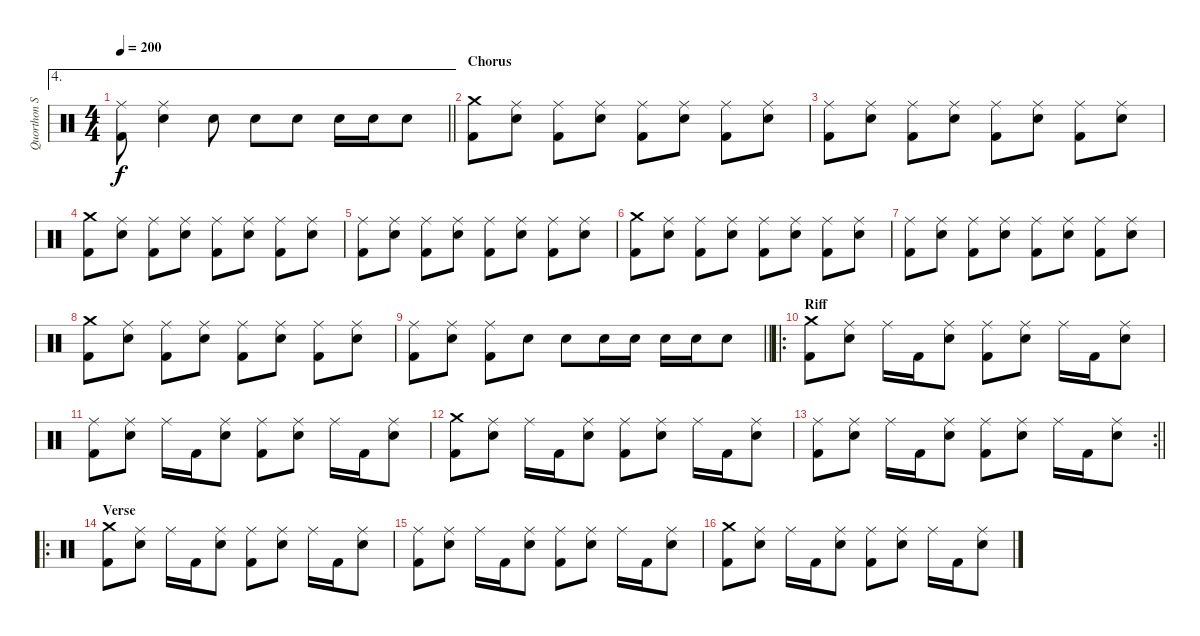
\track ("Quorthon Seth" "Quorthon S") {instrument percussion}
\staff {score}
\articulation defaults
\ae 4
\ts (4 4)
\tempo 200
\clef neutral
\barLineRight lightlight
\ks c
("Ride (middle)" "Kick (hit) 2").8{dy f} ("Ride (middle)" "Snare (hit) 2").4 "Snare (hit) 2".8 "Snare (hit) 2".8 "Snare (hit) 2".8 "Snare (hit) 2".16 "Snare (hit) 2".16 "Snare (hit) 2".8 |
\section ("" "Chorus")
("Crash medium (hit)" "Kick (hit) 2").8 ("Ride (middle)" "Snare (hit) 2").8 ("Ride (middle)" "Kick (hit) 2").8 ("Ride (middle)" "Snare (hit) 2").8 ("Ride (middle)" "Kick (hit) 2").8 ("Ride (middle)" "Snare (hit) 2").8 ("Ride (middle)" "Kick (hit) 2").8 ("Ride (middle)" "Snare (hit) 2").8 |
("Ride (middle)" "Kick (hit) 2").8 ("Ride (middle)" "Snare (hit) 2").8 ("Ride (middle)" "Kick (hit) 2").8 ("Ride (middle)" "Snare (hit) 2").8 ("Ride (middle)" "Kick (hit) 2").8 ("Ride (middle)" "Snare (hit) 2").8 ("Ride (middle)" "Kick (hit) 2").8 ("Ride (middle)" "Snare (hit) 2").8 |
("Crash medium (hit)" "Kick (hit) 2").8 ("Ride (middle)" "Snare (hit) 2").8 ("Ride (middle)" "Kick (hit) 2").8 ("Ride (middle)" "Snare (hit) 2").8 ("Ride (middle)" "Kick (hit) 2").8 ("Ride (middle)" "Snare (hit) 2").8 ("Ride (middle)" "Kick (hit) 2").8 ("Ride (middle)" "Snare (hit) 2").8 |
("Ride (middle)" "Kick (hit) 2").8 ("Ride (middle)" "Snare (hit) 2").8 ("Ride (middle)" "Kick (hit) 2").8 ("Ride (middle)" "Snare (hit) 2").8 ("Ride (middle)" "Kick (hit) 2").8 ("Ride (middle)" "Snare (hit) 2").8 ("Ride (middle)" "Kick (hit) 2").8 ("Ride (middle)" "Snare (hit) 2").8 |
("Crash medium (hit)" "Kick (hit) 2").8 ("Ride (middle)" "Snare (hit) 2").8 ("Ride (middle)" "Kick (hit) 2").8 ("Ride (middle)" "Snare (hit) 2").8 ("Ride (middle)" "Kick (hit) 2").8 ("Ride (middle)" "Snare (hit) 2").8 ("Ride (middle)" "Kick (hit) 2").8 ("Ride (middle)" "Snare (hit) 2").8 |
("Ride (middle)" "Kick (hit) 2").8 ("Ride (middle)" "Snare (hit) 2").8 ("Ride (middle)" "Kick (hit) 2").8 ("Ride (middle)" "Snare (hit) 2").8 ("Ride (middle)" "Kick (hit) 2").8 ("Ride (middle)" "Snare (hit) 2").8 ("Ride (middle)" "Kick (hit) 2").8 ("Ride (middle)" "Snare (hit) 2").8 |
("Crash medium (hit)" "Kick (hit) 2").8 ("Ride (middle)" "Snare (hit) 2").8 ("Ride (middle)" "Kick (hit) 2").8 ("Ride (middle)" "Snare (hit) 2").8 ("Ride (middle)" "Kick (hit) 2").8 ("Ride (middle)" "Snare (hit) 2").8 ("Ride (middle)" "Kick (hit) 2").8 ("Ride (middle)" "Snare (hit) 2").8 |
\barLineRight lightlight
("Ride (middle)" "Kick (hit) 2").8 ("Ride (middle)" "Snare (hit) 2").8 ("Ride (middle)" "Kick (hit) 2").8 "Snare (hit) 2".8 "Snare (hit) 2".8 "Snare (hit) 2".16 "Snare (hit) 2".16 "Snare (hit) 2".16 "Snare (hit) 2".16 "Snare (hit) 2".8 |
\ro
\section ("" "Riff")
("Crash medium (hit)" "Kick (hit) 2").8 ("Ride (middle)" "Snare (hit) 2").8 "Ride (middle)".16 "Kick (hit) 2".16 ("Ride (middle)" "Snare (hit) 2").8 ("Ride (middle)" "Kick (hit) 2").8 ("Ride (middle)" "Snare (hit) 2").8 "Ride (middle)".16 "Kick (hit) 2".16 ("Ride (middle)" "Snare (hit) 2").8 |
("Ride (middle)" "Kick (hit) 2").8 ("Ride (middle)" "Snare (hit) 2").8 "Ride (middle)".16 "Kick (hit) 2".16 ("Ride (middle)" "Snare (hit) 2").8 ("Ride (middle)" "Kick (hit) 2").8 ("Ride (middle)" "Snare (hit) 2").8 "Ride (middle)".16 "Kick (hit) 2".16 ("Ride (middle)" "Snare (hit) 2").8 |
("Crash medium (hit)" "Kick (hit) 2").8 ("Ride (middle)" "Snare (hit) 2").8 "Ride (middle)".16 "Kick (hit) 2".16 ("Ride (middle)" "Snare (hit) 2").8 ("Ride (middle)" "Kick (hit) 2").8 ("Ride (middle)" "Snare (hit) 2").8 "Ride (middle)".16 "Kick (hit) 2".16 ("Ride (middle)" "Snare (hit) 2").8 |
\rc 2
\barLineRight lightlight
("Ride (middle)" "Kick (hit) 2").8 ("Ride (middle)" "Snare (hit) 2").8 "Ride (middle)".16 "Kick (hit) 2".16 ("Ride (middle)" "Snare (hit) 2").8 ("Ride (middle)" "Kick (hit) 2").8 ("Ride (middle)" "Snare (hit) 2").8 "Ride (middle)".16 "Kick (hit) 2".16 ("Ride (middle)" "Snare (hit) 2").8 |
\ro
\section ("" "Verse")
("Crash medium (hit)" "Kick (hit) 2").8 ("Ride (middle)" "Snare (hit) 2").8 "Ride (middle)".16 "Kick (hit) 2".16 ("Ride (middle)" "Snare (hit) 2").8 ("Ride (middle)" "Kick (hit) 2").8 ("Ride (middle)" "Snare (hit) 2").8 "Ride (middle)".16 "Kick (hit) 2".16 ("Ride (middle)" "Snare (hit) 2").8 |
("Ride (middle)" "Kick (hit) 2").8 ("Ride (middle)" "Snare (hit) 2").8 "Ride (middle)".16 "Kick (hit) 2".16 ("Ride (middle)" "Snare (hit) 2").8 ("Ride (middle)" "Kick (hit) 2").8 ("Ride (middle)" "Snare (hit) 2").8 "Ride (middle)".16 "Kick (hit) 2".16 ("Ride (middle)" "Snare (hit) 2").8 |
("Crash medium (hit)" "Kick (hit) 2").8 ("Ride (middle)" "Snare (hit) 2").8 "Ride (middle)".16 "Kick (hit) 2".16 ("Ride (middle)" "Snare (hit) 2").8 ("Ride (middle)" "Kick (hit) 2").8 ("Ride (middle)" "Snare (hit) 2").8 "Ride (middle)".16 "Kick (hit) 2".16 ("Ride (middle)" "Snare (hit) 2").8
